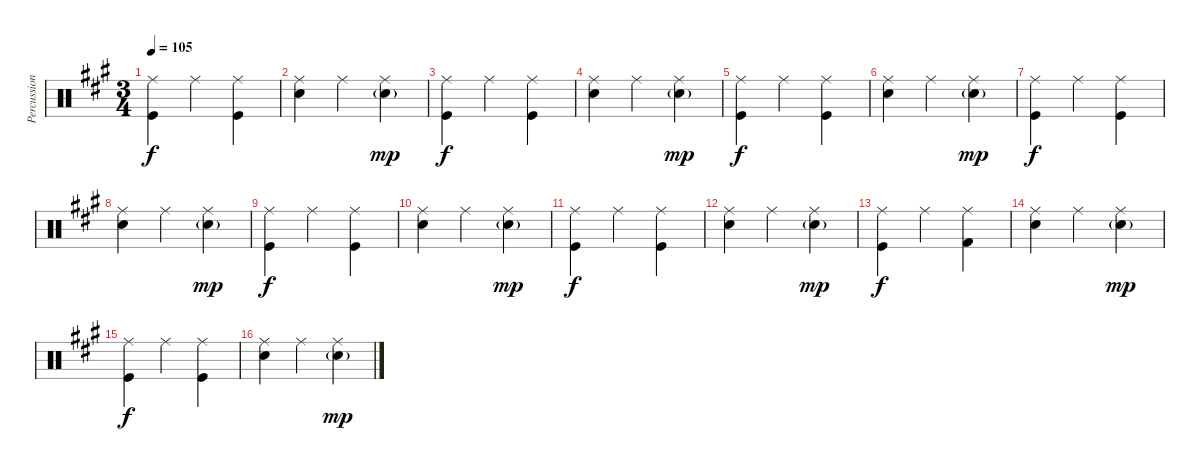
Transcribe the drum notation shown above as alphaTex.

\track ("Percussion" "Percussion") {instrument percussion}
\staff {score}
\articulation defaults
\ts (3 4)
\tempo 105
\clef neutral
\ks a
("Ride (middle)" "Kick (hit)").4{dy f} "Ride (middle)".4 ("Ride (middle)" "Kick (hit)").4 |
("Ride (middle)" "Snare (hit) 2").4 "Ride (middle)".4 ("Ride (middle)" "Snare (hit) 2"{g}).4{dy mp} |
("Ride (middle)" "Kick (hit)").4{dy f} "Ride (middle)".4 ("Ride (middle)" "Kick (hit)").4 |
("Ride (middle)" "Snare (hit) 2").4 "Ride (middle)".4 ("Ride (middle)" "Snare (hit) 2"{g}).4{dy mp} |
("Ride (middle)" "Kick (hit)").4{dy f} "Ride (middle)".4 ("Ride (middle)" "Kick (hit)").4 |
("Ride (middle)" "Snare (hit) 2").4 "Ride (middle)".4 ("Ride (middle)" "Snare (hit) 2"{g}).4{dy mp} |
("Ride (middle)" "Kick (hit)").4{dy f} "Ride (middle)".4 ("Ride (middle)" "Kick (hit)").4 |
("Ride (middle)" "Snare (hit) 2").4 "Ride (middle)".4 ("Ride (middle)" "Snare (hit) 2"{g}).4{dy mp} |
("Ride (middle)" "Kick (hit)").4{dy f} "Ride (middle)".4 ("Ride (middle)" "Kick (hit)").4 |
("Ride (middle)" "Snare (hit) 2").4 "Ride (middle)".4 ("Ride (middle)" "Snare (hit) 2"{g}).4{dy mp} |
("Ride (middle)" "Kick (hit)").4{dy f} "Ride (middle)".4 ("Ride (middle)" "Kick (hit)").4 |
("Ride (middle)" "Snare (hit) 2").4 "Ride (middle)".4 ("Ride (middle)" "Snare (hit) 2"{g}).4{dy mp} |
("Ride (middle)" "Kick (hit)").4{dy f} "Ride (middle)".4 ("Ride (middle)" "Kick (hit) 2").4 |
("Ride (middle)" "Snare (hit) 2").4 "Ride (middle)".4 ("Ride (middle)" "Snare (hit) 2"{g}).4{dy mp} |
("Ride (middle)" "Kick (hit)").4{dy f} "Ride (middle)".4 ("Ride (middle)" "Kick (hit)").4 |
("Ride (middle)" "Snare (hit) 2").4 "Ride (middle)".4 ("Ride (middle)" "Snare (hit) 2"{g}).4{dy mp}
